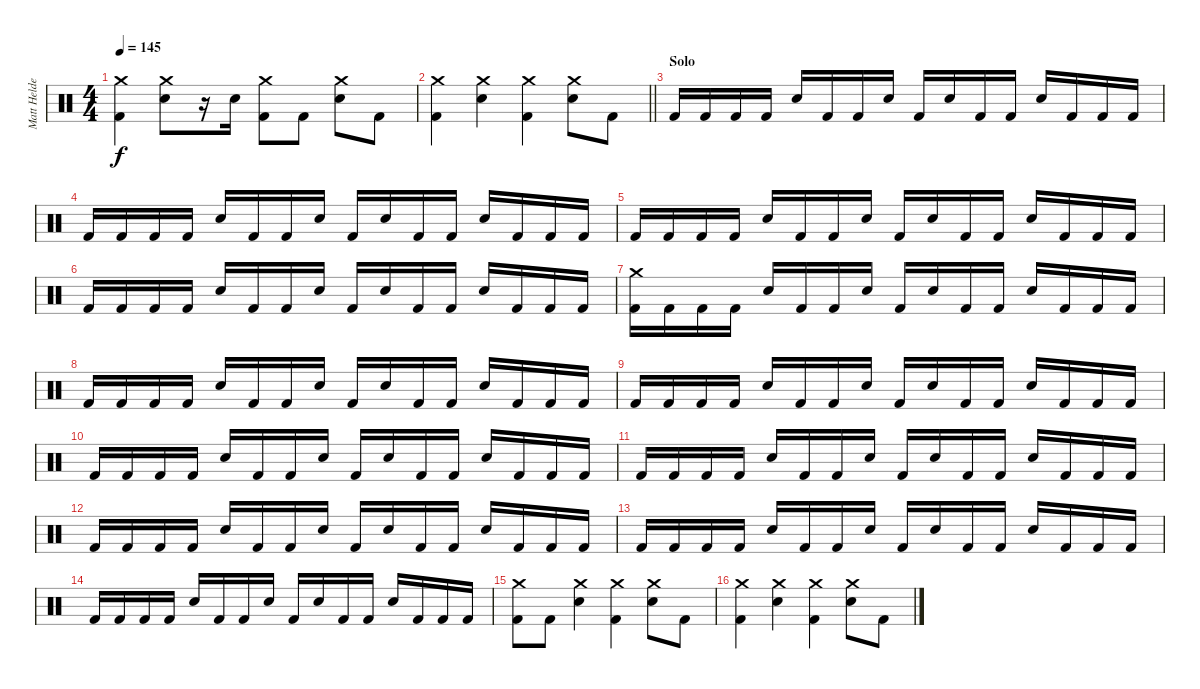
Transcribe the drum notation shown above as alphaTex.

\track ("Matt Helders" "Matt Helde") {instrument percussion}
\staff {score}
\articulation defaults
\ts (4 4)
\tempo 145
\clef neutral
\ks c
("Kick (hit) 2" "Crash medium (hit)").4{dy f} ("Electric Snare (hit)" "Crash medium (hit)").8 r.16 "Electric Snare (hit)".16 ("Kick (hit) 2" "Crash medium (hit)").8 "Kick (hit) 2".8 ("Electric Snare (hit)" "Crash medium (hit)").8 "Kick (hit) 2".8 |
\barLineRight lightlight
("Kick (hit) 2" "Crash medium (hit)").4 ("Electric Snare (hit)" "Crash medium (hit)").4 ("Kick (hit) 2" "Crash medium (hit)").4 ("Electric Snare (hit)" "Crash medium (hit)").8 "Kick (hit) 2".8 |
\section ("" "Solo")
"Kick (hit) 2".16 "Kick (hit) 2".16 "Kick (hit) 2".16 "Kick (hit) 2".16 "Electric Snare (hit)".16 "Kick (hit) 2".16 "Kick (hit) 2".16 "Electric Snare (hit)".16 "Kick (hit) 2".16 "Electric Snare (hit)".16 "Kick (hit) 2".16 "Kick (hit) 2".16 "Electric Snare (hit)".16 "Kick (hit) 2".16 "Kick (hit) 2".16 "Kick (hit) 2".16 |
"Kick (hit) 2".16 "Kick (hit) 2".16 "Kick (hit) 2".16 "Kick (hit) 2".16 "Electric Snare (hit)".16 "Kick (hit) 2".16 "Kick (hit) 2".16 "Electric Snare (hit)".16 "Kick (hit) 2".16 "Electric Snare (hit)".16 "Kick (hit) 2".16 "Kick (hit) 2".16 "Electric Snare (hit)".16 "Kick (hit) 2".16 "Kick (hit) 2".16 "Kick (hit) 2".16 |
"Kick (hit) 2".16 "Kick (hit) 2".16 "Kick (hit) 2".16 "Kick (hit) 2".16 "Electric Snare (hit)".16 "Kick (hit) 2".16 "Kick (hit) 2".16 "Electric Snare (hit)".16 "Kick (hit) 2".16 "Electric Snare (hit)".16 "Kick (hit) 2".16 "Kick (hit) 2".16 "Electric Snare (hit)".16 "Kick (hit) 2".16 "Kick (hit) 2".16 "Kick (hit) 2".16 |
"Kick (hit) 2".16 "Kick (hit) 2".16 "Kick (hit) 2".16 "Kick (hit) 2".16 "Electric Snare (hit)".16 "Kick (hit) 2".16 "Kick (hit) 2".16 "Electric Snare (hit)".16 "Kick (hit) 2".16 "Electric Snare (hit)".16 "Kick (hit) 2".16 "Kick (hit) 2".16 "Electric Snare (hit)".16 "Kick (hit) 2".16 "Kick (hit) 2".16 "Kick (hit) 2".16 |
("Kick (hit) 2" "Crash medium (hit)").16 "Kick (hit) 2".16 "Kick (hit) 2".16 "Kick (hit) 2".16 "Electric Snare (hit)".16 "Kick (hit) 2".16 "Kick (hit) 2".16 "Electric Snare (hit)".16 "Kick (hit) 2".16 "Electric Snare (hit)".16 "Kick (hit) 2".16 "Kick (hit) 2".16 "Electric Snare (hit)".16 "Kick (hit) 2".16 "Kick (hit) 2".16 "Kick (hit) 2".16 |
"Kick (hit) 2".16 "Kick (hit) 2".16 "Kick (hit) 2".16 "Kick (hit) 2".16 "Electric Snare (hit)".16 "Kick (hit) 2".16 "Kick (hit) 2".16 "Electric Snare (hit)".16 "Kick (hit) 2".16 "Electric Snare (hit)".16 "Kick (hit) 2".16 "Kick (hit) 2".16 "Electric Snare (hit)".16 "Kick (hit) 2".16 "Kick (hit) 2".16 "Kick (hit) 2".16 |
"Kick (hit) 2".16 "Kick (hit) 2".16 "Kick (hit) 2".16 "Kick (hit) 2".16 "Electric Snare (hit)".16 "Kick (hit) 2".16 "Kick (hit) 2".16 "Electric Snare (hit)".16 "Kick (hit) 2".16 "Electric Snare (hit)".16 "Kick (hit) 2".16 "Kick (hit) 2".16 "Electric Snare (hit)".16 "Kick (hit) 2".16 "Kick (hit) 2".16 "Kick (hit) 2".16 |
"Kick (hit) 2".16 "Kick (hit) 2".16 "Kick (hit) 2".16 "Kick (hit) 2".16 "Electric Snare (hit)".16 "Kick (hit) 2".16 "Kick (hit) 2".16 "Electric Snare (hit)".16 "Kick (hit) 2".16 "Electric Snare (hit)".16 "Kick (hit) 2".16 "Kick (hit) 2".16 "Electric Snare (hit)".16 "Kick (hit) 2".16 "Kick (hit) 2".16 "Kick (hit) 2".16 |
"Kick (hit) 2".16 "Kick (hit) 2".16 "Kick (hit) 2".16 "Kick (hit) 2".16 "Electric Snare (hit)".16 "Kick (hit) 2".16 "Kick (hit) 2".16 "Electric Snare (hit)".16 "Kick (hit) 2".16 "Electric Snare (hit)".16 "Kick (hit) 2".16 "Kick (hit) 2".16 "Electric Snare (hit)".16 "Kick (hit) 2".16 "Kick (hit) 2".16 "Kick (hit) 2".16 |
"Kick (hit) 2".16 "Kick (hit) 2".16 "Kick (hit) 2".16 "Kick (hit) 2".16 "Electric Snare (hit)".16 "Kick (hit) 2".16 "Kick (hit) 2".16 "Electric Snare (hit)".16 "Kick (hit) 2".16 "Electric Snare (hit)".16 "Kick (hit) 2".16 "Kick (hit) 2".16 "Electric Snare (hit)".16 "Kick (hit) 2".16 "Kick (hit) 2".16 "Kick (hit) 2".16 |
"Kick (hit) 2".16 "Kick (hit) 2".16 "Kick (hit) 2".16 "Kick (hit) 2".16 "Electric Snare (hit)".16 "Kick (hit) 2".16 "Kick (hit) 2".16 "Electric Snare (hit)".16 "Kick (hit) 2".16 "Electric Snare (hit)".16 "Kick (hit) 2".16 "Kick (hit) 2".16 "Electric Snare (hit)".16 "Kick (hit) 2".16 "Kick (hit) 2".16 "Kick (hit) 2".16 |
"Kick (hit) 2".16 "Kick (hit) 2".16 "Kick (hit) 2".16 "Kick (hit) 2".16 "Electric Snare (hit)".16 "Kick (hit) 2".16 "Kick (hit) 2".16 "Electric Snare (hit)".16 "Kick (hit) 2".16 "Electric Snare (hit)".16 "Kick (hit) 2".16 "Kick (hit) 2".16 "Electric Snare (hit)".16 "Kick (hit) 2".16 "Kick (hit) 2".16 "Kick (hit) 2".16 |
("Kick (hit) 2" "Crash medium (hit)").8 "Kick (hit) 2".8 ("Electric Snare (hit)" "Crash medium (hit)").4 ("Kick (hit) 2" "Crash medium (hit)").4 ("Electric Snare (hit)" "Crash medium (hit)").8 "Kick (hit) 2".8 |
("Kick (hit) 2" "Crash medium (hit)").4 ("Electric Snare (hit)" "Crash medium (hit)").4 ("Kick (hit) 2" "Crash medium (hit)").4 ("Electric Snare (hit)" "Crash medium (hit)").8 "Kick (hit) 2".8
